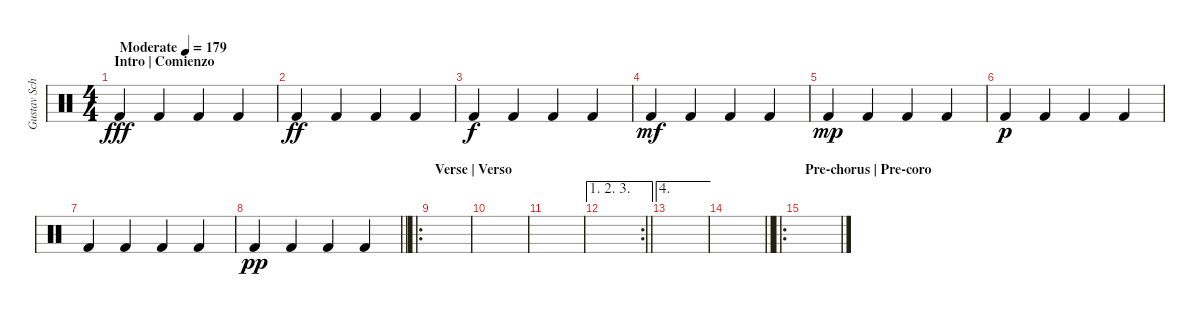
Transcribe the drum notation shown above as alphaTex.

\track ("Gustav Schäfer (2nd)" "Gustav Sch") {instrument percussion}
\staff {score}
\articulation defaults
\ts (4 4)
\section ("" "Intro | Comienzo")
\tempo (179 "Moderate")
\clef neutral
\ks c "Kick (hit) 2".4{dy fff} "Kick (hit) 2".4 "Kick (hit) 2".4 "Kick (hit) 2".4
|
"Kick (hit) 2".4{dy ff} "Kick (hit) 2".4 "Kick (hit) 2".4 "Kick (hit) 2".4 |
"Kick (hit) 2".4{dy f} "Kick (hit) 2".4 "Kick (hit) 2".4 "Kick (hit) 2".4 |
"Kick (hit) 2".4{dy mf} "Kick (hit) 2".4 "Kick (hit) 2".4 "Kick (hit) 2".4 |
"Kick (hit) 2".4{dy mp} "Kick (hit) 2".4 "Kick (hit) 2".4 "Kick (hit) 2".4 |
"Kick (hit) 2".4{dy p} "Kick (hit) 2".4 "Kick (hit) 2".4 "Kick (hit) 2".4 |
"Kick (hit) 2".4 "Kick (hit) 2".4 "Kick (hit) 2".4 "Kick (hit) 2".4 |
\barLineRight lightlight "Kick (hit) 2".4{dy pp} "Kick (hit) 2".4 "Kick (hit) 2".4 "Kick (hit) 2".4
|
\ro
\section ("" "Verse | Verso")
|
|
|
\ae (1 2 3)
\rc 2
\barLineRight lightlight
|
\ae 4
|
\barLineRight lightlight
|
\ro
\section ("" "Pre-chorus | Pre-coro")
